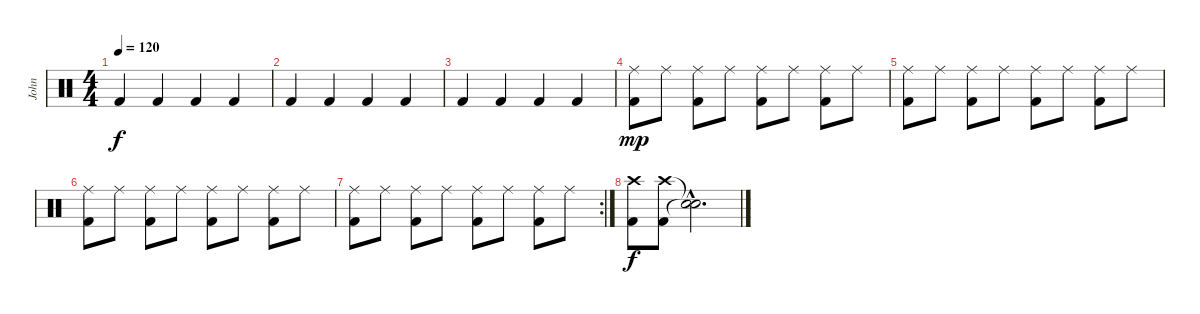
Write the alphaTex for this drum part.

\track ("John" "John") {instrument percussion}
\staff {score}
\articulation defaults
\ts (4 4)
\tempo 120
\clef neutral
\ks c "Kick (hit) 2".4{dy f} "Kick (hit) 2".4 "Kick (hit) 2".4 "Kick (hit) 2".4
|
"Kick (hit) 2".4 "Kick (hit) 2".4 "Kick (hit) 2".4 "Kick (hit) 2".4 |
"Kick (hit) 2".4 "Kick (hit) 2".4 "Kick (hit) 2".4 "Kick (hit) 2".4 |
("Ride (middle)" "Kick (hit) 2").8{dy mp} "Ride (middle)".8 ("Ride (middle)" "Kick (hit) 2").8 "Ride (middle)".8 ("Ride (middle)" "Kick (hit) 2").8 "Ride (middle)".8 ("Ride (middle)" "Kick (hit) 2").8 "Ride (middle)".8 |
("Ride (middle)" "Kick (hit) 2").8 "Ride (middle)".8 ("Ride (middle)" "Kick (hit) 2").8 "Ride (middle)".8 ("Ride (middle)" "Kick (hit) 2").8 "Ride (middle)".8 ("Ride (middle)" "Kick (hit) 2").8 "Ride (middle)".8 |
("Ride (middle)" "Kick (hit) 2").8 "Ride (middle)".8 ("Ride (middle)" "Kick (hit) 2").8 "Ride (middle)".8 ("Ride (middle)" "Kick (hit) 2").8 "Ride (middle)".8 ("Ride (middle)" "Kick (hit) 2").8 "Ride (middle)".8 |
\rc 2
("Ride (middle)" "Kick (hit) 2").8 "Ride (middle)".8 ("Ride (middle)" "Kick (hit) 2").8 "Ride (middle)".8 ("Ride (middle)" "Kick (hit) 2").8 "Ride (middle)".8 ("Ride (middle)" "Kick (hit) 2").8 "Ride (middle)".8 |
("Crash high (hit)" "Kick (hit) 2").8{dy f} ("Crash high (hit)" "Kick (hit) 2").8 ("Snare (hit)"{hac t} "Snare (hit)"{hac t}).2{d}
